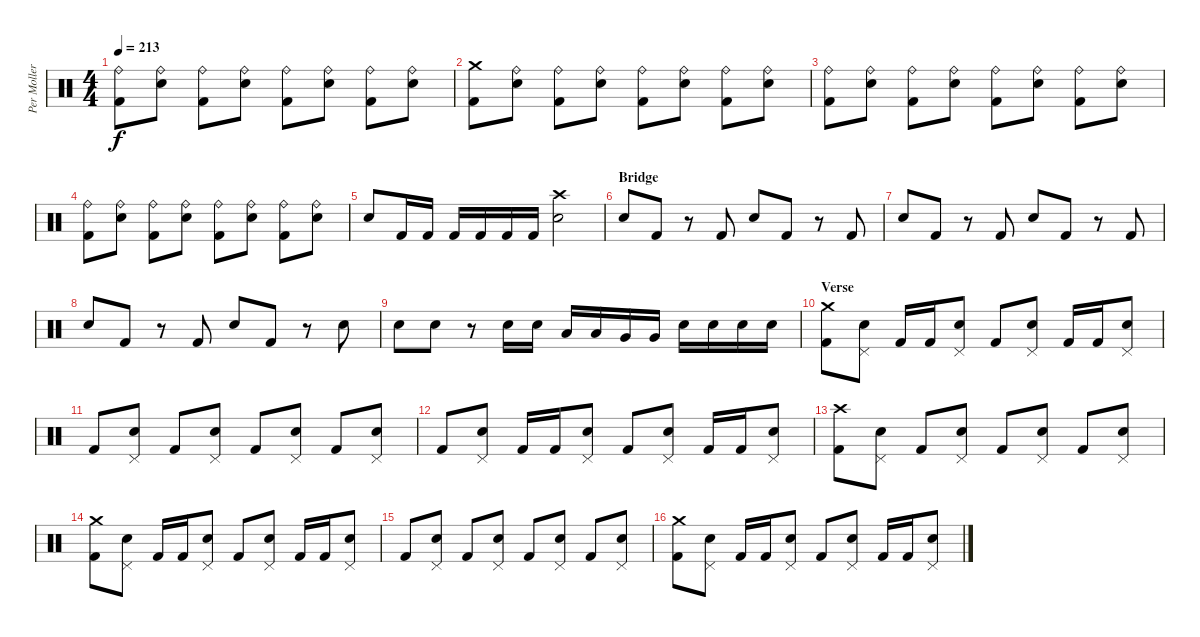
\track ("Per Moller Jensen" "Per Moller") {instrument percussion}
\staff {score}
\articulation defaults
\ts (4 4)
\tempo 213
\clef neutral
\ks c
("Ride (bell)" "Kick (hit) 2").8{dy f} ("Ride (bell)" "Snare (hit) 2").8 ("Ride (bell)" "Kick (hit) 2").8 ("Ride (bell)" "Snare (hit) 2").8 ("Ride (bell)" "Kick (hit) 2").8 ("Ride (bell)" "Snare (hit) 2").8 ("Ride (bell)" "Kick (hit) 2").8 ("Ride (bell)" "Snare (hit) 2").8 |
("Crash medium (hit)" "Kick (hit) 2").8 ("Ride (bell)" "Snare (hit) 2").8 ("Ride (bell)" "Kick (hit) 2").8 ("Ride (bell)" "Snare (hit) 2").8 ("Ride (bell)" "Kick (hit) 2").8 ("Ride (bell)" "Snare (hit) 2").8 ("Ride (bell)" "Kick (hit) 2").8 ("Ride (bell)" "Snare (hit) 2").8 |
("Ride (bell)" "Kick (hit) 2").8 ("Ride (bell)" "Snare (hit) 2").8 ("Ride (bell)" "Kick (hit) 2").8 ("Ride (bell)" "Snare (hit) 2").8 ("Ride (bell)" "Kick (hit) 2").8 ("Ride (bell)" "Snare (hit) 2").8 ("Ride (bell)" "Kick (hit) 2").8 ("Ride (bell)" "Snare (hit) 2").8 |
("Ride (bell)" "Kick (hit) 2").8 ("Ride (bell)" "Snare (hit) 2").8 ("Ride (bell)" "Kick (hit) 2").8 ("Ride (bell)" "Snare (hit) 2").8 ("Ride (bell)" "Kick (hit) 2").8 ("Ride (bell)" "Snare (hit) 2").8 ("Ride (bell)" "Kick (hit) 2").8 ("Ride (bell)" "Snare (hit) 2").8 |
"Snare (hit) 2".8 "Kick (hit) 2".16 "Kick (hit) 2".16 "Kick (hit) 2".16 "Kick (hit) 2".16 "Kick (hit) 2".16 "Kick (hit) 2".16 ("Crash high (hit)" "Snare (hit) 2").2 |
\section ("" "Bridge")
"Snare (hit) 2".8 "Kick (hit) 2".8 r.8 "Kick (hit) 2".8 "Snare (hit) 2".8 "Kick (hit) 2".8 r.8 "Kick (hit) 2".8 |
"Snare (hit) 2".8 "Kick (hit) 2".8 r.8 "Kick (hit) 2".8 "Snare (hit) 2".8 "Kick (hit) 2".8 r.8 "Kick (hit) 2".8 |
"Snare (hit) 2".8 "Kick (hit) 2".8 r.8 "Kick (hit) 2".8 "Snare (hit) 2".8 "Kick (hit) 2".8 r.8 "Snare (hit) 2".8 |
"Snare (hit) 2".8 "Snare (hit) 2".8 r.8 "Snare (hit) 2".16 "Snare (hit) 2".16 "Low Tom (hit)".16 "Low Tom (hit)".16 "Very Low Tom (hit)".16 "Very Low Tom (hit)".16 "Snare (hit) 2".16 "Snare (hit) 2".16 "Snare (hit) 2".16 "Snare (hit) 2".16 |
\section ("" "Verse")
("Crash medium (hit)" "Kick (hit) 2").8 ("Pedal Hi-Hat (hit)" "Snare (hit) 2").8 "Kick (hit) 2".16 "Kick (hit) 2".16 ("Pedal Hi-Hat (hit)" "Snare (hit) 2").8 "Kick (hit) 2".8 ("Pedal Hi-Hat (hit)" "Snare (hit) 2").8 "Kick (hit) 2".16 "Kick (hit) 2".16 ("Pedal Hi-Hat (hit)" "Snare (hit) 2").8 |
"Kick (hit) 2".8 ("Pedal Hi-Hat (hit)" "Snare (hit) 2").8 "Kick (hit) 2".8 ("Pedal Hi-Hat (hit)" "Snare (hit) 2").8 "Kick (hit) 2".8 ("Pedal Hi-Hat (hit)" "Snare (hit) 2").8 "Kick (hit) 2".8 ("Pedal Hi-Hat (hit)" "Snare (hit) 2").8 |
"Kick (hit) 2".8 ("Pedal Hi-Hat (hit)" "Snare (hit) 2").8 "Kick (hit) 2".16 "Kick (hit) 2".16 ("Pedal Hi-Hat (hit)" "Snare (hit) 2").8 "Kick (hit) 2".8 ("Pedal Hi-Hat (hit)" "Snare (hit) 2").8 "Kick (hit) 2".16 "Kick (hit) 2".16 ("Pedal Hi-Hat (hit)" "Snare (hit) 2").8 |
("Crash high (hit)" "Kick (hit) 2").8 ("Pedal Hi-Hat (hit)" "Snare (hit) 2").8 "Kick (hit) 2".8 ("Pedal Hi-Hat (hit)" "Snare (hit) 2").8 "Kick (hit) 2".8 ("Pedal Hi-Hat (hit)" "Snare (hit) 2").8 "Kick (hit) 2".8 ("Pedal Hi-Hat (hit)" "Snare (hit) 2").8 |
("Crash medium (hit)" "Kick (hit) 2").8 ("Pedal Hi-Hat (hit)" "Snare (hit) 2").8 "Kick (hit) 2".16 "Kick (hit) 2".16 ("Pedal Hi-Hat (hit)" "Snare (hit) 2").8 "Kick (hit) 2".8 ("Pedal Hi-Hat (hit)" "Snare (hit) 2").8 "Kick (hit) 2".16 "Kick (hit) 2".16 ("Pedal Hi-Hat (hit)" "Snare (hit) 2").8 |
"Kick (hit) 2".8 ("Pedal Hi-Hat (hit)" "Snare (hit) 2").8 "Kick (hit) 2".8 ("Pedal Hi-Hat (hit)" "Snare (hit) 2").8 "Kick (hit) 2".8 ("Pedal Hi-Hat (hit)" "Snare (hit) 2").8 "Kick (hit) 2".8 ("Pedal Hi-Hat (hit)" "Snare (hit) 2").8 |
("Crash medium (hit)" "Kick (hit) 2").8 ("Pedal Hi-Hat (hit)" "Snare (hit) 2").8 "Kick (hit) 2".16 "Kick (hit) 2".16 ("Pedal Hi-Hat (hit)" "Snare (hit) 2").8 "Kick (hit) 2".8 ("Pedal Hi-Hat (hit)" "Snare (hit) 2").8 "Kick (hit) 2".16 "Kick (hit) 2".16 ("Pedal Hi-Hat (hit)" "Snare (hit) 2").8
